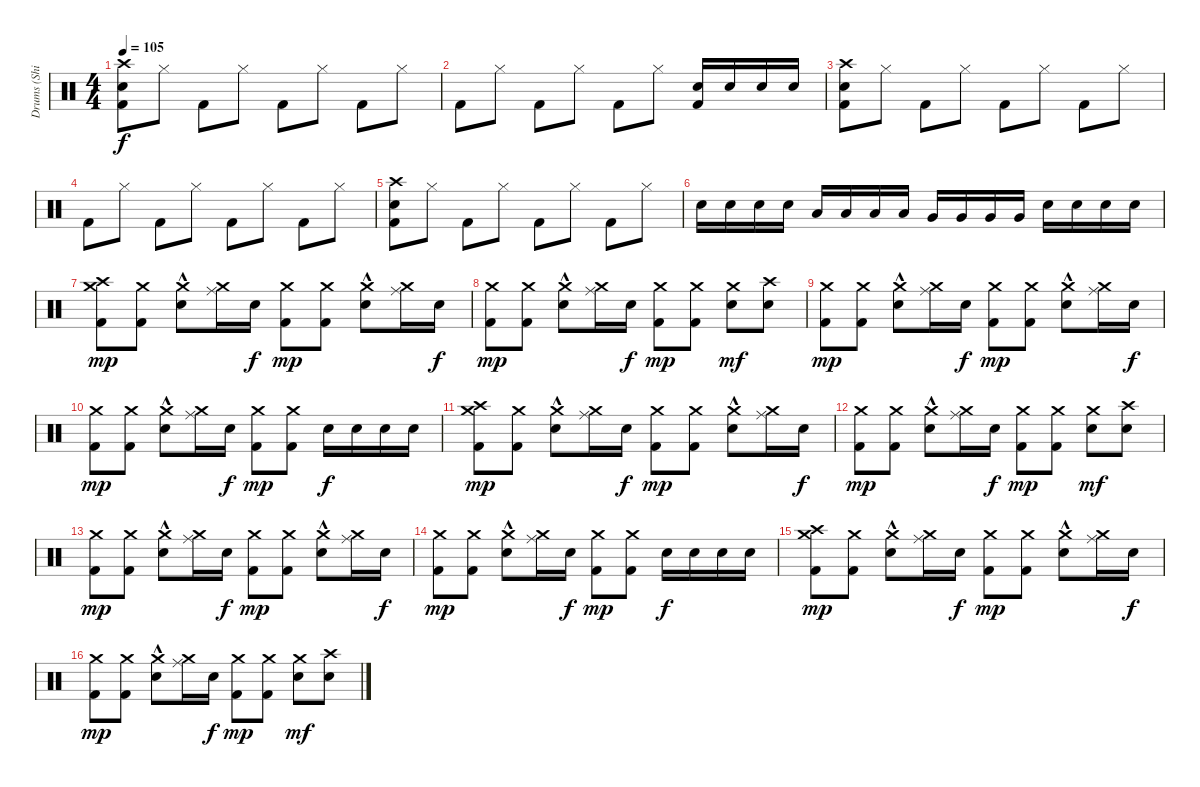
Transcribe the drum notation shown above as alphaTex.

\track ("Drums (Shinya)" "Drums (Shi") {instrument percussion}
\staff {score}
\articulation defaults
\ts (4 4)
\tempo 105
\clef neutral
\ks c
("Electric Snare (hit)" "Kick (hit) 2" "Crash high (hit)").8{dy f} "Hi-Hat (closed)".8 "Kick (hit) 2".8 "Hi-Hat (closed)".8 "Kick (hit) 2".8 "Hi-Hat (closed)".8 "Kick (hit) 2".8 "Hi-Hat (closed)".8 |
"Kick (hit) 2".8 "Hi-Hat (closed)".8 "Kick (hit) 2".8 "Hi-Hat (closed)".8 "Kick (hit) 2".8 "Hi-Hat (closed)".8 ("Electric Snare (hit)" "Kick (hit) 2").16 "Electric Snare (hit)".16 "Electric Snare (hit)".16 "Electric Snare (hit)".16 |
("Crash high (hit)" "Electric Snare (hit)" "Kick (hit) 2").8 "Hi-Hat (closed)".8 "Kick (hit) 2".8 "Hi-Hat (closed)".8 "Kick (hit) 2".8 "Hi-Hat (closed)".8 "Kick (hit) 2".8 "Hi-Hat (closed)".8 |
"Kick (hit) 2".8 "Hi-Hat (closed)".8 "Kick (hit) 2".8 "Hi-Hat (closed)".8 "Kick (hit) 2".8 "Hi-Hat (closed)".8 "Kick (hit) 2".8 "Hi-Hat (closed)".8 |
("Electric Snare (hit)" "Crash high (hit)" "Kick (hit) 2").8 "Hi-Hat (closed)".8 "Kick (hit) 2".8 "Hi-Hat (closed)".8 "Kick (hit) 2".8 "Hi-Hat (closed)".8 "Kick (hit) 2".8 "Hi-Hat (closed)".8 |
"Electric Snare (hit)".16 "Electric Snare (hit)".16 "Electric Snare (hit)".16 "Electric Snare (hit)".16 "Low Tom (hit)".16 "Low Tom (hit)".16 "Low Tom (hit)".16 "Low Tom (hit)".16 "Very Low Tom (hit)".16 "Very Low Tom (hit)".16 "Very Low Tom (hit)".16 "Very Low Tom (hit)".16 "Electric Snare (hit)".16 "Electric Snare (hit)".16 "Electric Snare (hit)".16 "Electric Snare (hit)".16 |
("Crash medium (hit)" "Crash high (hit)" "Kick (hit) 2").8{dy mp} ("Crash medium (hit)" "Kick (hit) 2").8 ("Crash medium (hit)" "Electric Snare (hit)"{hac}).8 ("Crash medium (hit)" "Ride (middle)").16 "Electric Snare (hit)".16{dy f} ("Crash medium (hit)" "Kick (hit) 2").8{dy mp} ("Crash medium (hit)" "Kick (hit) 2").8 ("Crash medium (hit)" "Electric Snare (hit)"{hac}).8 ("Ride (middle)" "Crash medium (hit)").16 "Electric Snare (hit)".16{dy f} |
("Kick (hit) 2" "Crash medium (hit)").8{dy mp} ("Kick (hit) 2" "Crash medium (hit)").8 ("Electric Snare (hit)"{hac} "Crash medium (hit)").8 ("Crash medium (hit)" "Ride (middle)").16 "Electric Snare (hit)".16{dy f} ("Kick (hit) 2" "Crash medium (hit)").8{dy mp} ("Kick (hit) 2" "Crash medium (hit)").8 ("Electric Snare (hit)" "Crash medium (hit)").8{dy mf} ("Electric Snare (hit)" "Crash high (hit)").8 |
("Crash medium (hit)" "Kick (hit) 2").8{dy mp} ("Crash medium (hit)" "Kick (hit) 2").8 ("Crash medium (hit)" "Electric Snare (hit)"{hac}).8 ("Crash medium (hit)" "Ride (middle)").16 "Electric Snare (hit)".16{dy f} ("Crash medium (hit)" "Kick (hit) 2").8{dy mp} ("Crash medium (hit)" "Kick (hit) 2").8 ("Crash medium (hit)" "Electric Snare (hit)"{hac}).8 ("Ride (middle)" "Crash medium (hit)").16 "Electric Snare (hit)".16{dy f} |
("Kick (hit) 2" "Crash medium (hit)").8{dy mp} ("Kick (hit) 2" "Crash medium (hit)").8 ("Electric Snare (hit)"{hac} "Crash medium (hit)").8 ("Crash medium (hit)" "Ride (middle)").16 "Electric Snare (hit)".16{dy f} ("Kick (hit) 2" "Crash medium (hit)").8{dy mp} ("Kick (hit) 2" "Crash medium (hit)").8 "Electric Snare (hit)".16{dy f} "Electric Snare (hit)".16 "Electric Snare (hit)".16 "Electric Snare (hit)".16 |
("Crash medium (hit)" "Crash high (hit)" "Kick (hit) 2").8{dy mp} ("Crash medium (hit)" "Kick (hit) 2").8 ("Crash medium (hit)" "Electric Snare (hit)"{hac}).8 ("Crash medium (hit)" "Ride (middle)").16 "Electric Snare (hit)".16{dy f} ("Crash medium (hit)" "Kick (hit) 2").8{dy mp} ("Crash medium (hit)" "Kick (hit) 2").8 ("Crash medium (hit)" "Electric Snare (hit)"{hac}).8 ("Ride (middle)" "Crash medium (hit)").16 "Electric Snare (hit)".16{dy f} |
("Kick (hit) 2" "Crash medium (hit)").8{dy mp} ("Kick (hit) 2" "Crash medium (hit)").8 ("Electric Snare (hit)"{hac} "Crash medium (hit)").8 ("Crash medium (hit)" "Ride (middle)").16 "Electric Snare (hit)".16{dy f} ("Kick (hit) 2" "Crash medium (hit)").8{dy mp} ("Kick (hit) 2" "Crash medium (hit)").8 ("Electric Snare (hit)" "Crash medium (hit)").8{dy mf} ("Electric Snare (hit)" "Crash high (hit)").8 |
("Crash medium (hit)" "Kick (hit) 2").8{dy mp} ("Crash medium (hit)" "Kick (hit) 2").8 ("Crash medium (hit)" "Electric Snare (hit)"{hac}).8 ("Crash medium (hit)" "Ride (middle)").16 "Electric Snare (hit)".16{dy f} ("Crash medium (hit)" "Kick (hit) 2").8{dy mp} ("Crash medium (hit)" "Kick (hit) 2").8 ("Crash medium (hit)" "Electric Snare (hit)"{hac}).8 ("Ride (middle)" "Crash medium (hit)").16 "Electric Snare (hit)".16{dy f} |
("Kick (hit) 2" "Crash medium (hit)").8{dy mp} ("Kick (hit) 2" "Crash medium (hit)").8 ("Electric Snare (hit)"{hac} "Crash medium (hit)").8 ("Crash medium (hit)" "Ride (middle)").16 "Electric Snare (hit)".16{dy f} ("Kick (hit) 2" "Crash medium (hit)").8{dy mp} ("Kick (hit) 2" "Crash medium (hit)").8 "Electric Snare (hit)".16{dy f} "Electric Snare (hit)".16 "Electric Snare (hit)".16 "Electric Snare (hit)".16 |
("Crash medium (hit)" "Crash high (hit)" "Kick (hit) 2").8{dy mp} ("Crash medium (hit)" "Kick (hit) 2").8 ("Crash medium (hit)" "Electric Snare (hit)"{hac}).8 ("Crash medium (hit)" "Ride (middle)").16 "Electric Snare (hit)".16{dy f} ("Crash medium (hit)" "Kick (hit) 2").8{dy mp} ("Crash medium (hit)" "Kick (hit) 2").8 ("Crash medium (hit)" "Electric Snare (hit)"{hac}).8 ("Ride (middle)" "Crash medium (hit)").16 "Electric Snare (hit)".16{dy f} |
("Kick (hit) 2" "Crash medium (hit)").8{dy mp} ("Kick (hit) 2" "Crash medium (hit)").8 ("Electric Snare (hit)"{hac} "Crash medium (hit)").8 ("Crash medium (hit)" "Ride (middle)").16 "Electric Snare (hit)".16{dy f} ("Kick (hit) 2" "Crash medium (hit)").8{dy mp} ("Kick (hit) 2" "Crash medium (hit)").8 ("Electric Snare (hit)" "Crash medium (hit)").8{dy mf} ("Electric Snare (hit)" "Crash high (hit)").8
